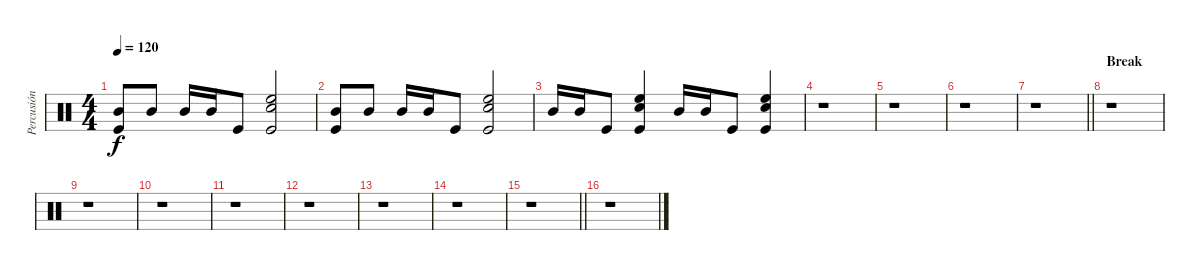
\track ("Percusión" "Percusión") {instrument percussion}
\staff {score}
\articulation defaults
\ts (4 4)
\tempo 120
\clef neutral
\ks c
("Mid Tom (hit)" "Kick (hit)").8{dy f} "Mid Tom (hit)".8 "Mid Tom (hit)".16 "Mid Tom (hit)".16 "Kick (hit)".8 ("High Floor Tom (hit)" "Snare (hit) 2" "Kick (hit)").2 |
("Mid Tom (hit)" "Kick (hit)").8 "Mid Tom (hit)".8 "Mid Tom (hit)".16 "Mid Tom (hit)".16 "Kick (hit)".8 ("High Floor Tom (hit)" "Snare (hit) 2" "Kick (hit)").2 |
"Mid Tom (hit)".16 "Mid Tom (hit)".16 "Kick (hit)".8 ("High Floor Tom (hit)" "Snare (hit) 2" "Kick (hit)").4 "Mid Tom (hit)".16 "Mid Tom (hit)".16 "Kick (hit)".8 ("High Floor Tom (hit)" "Snare (hit) 2" "Kick (hit)").4 |
r.1 |
r.1 |
r.1 |
\barLineRight lightlight
r.1 |
\section ("" "Break")
r.1 |
r.1 |
r.1 |
r.1 |
r.1 |
r.1 |
r.1 |
\barLineRight lightlight
r.1 |
\section ("" "")
r.1
